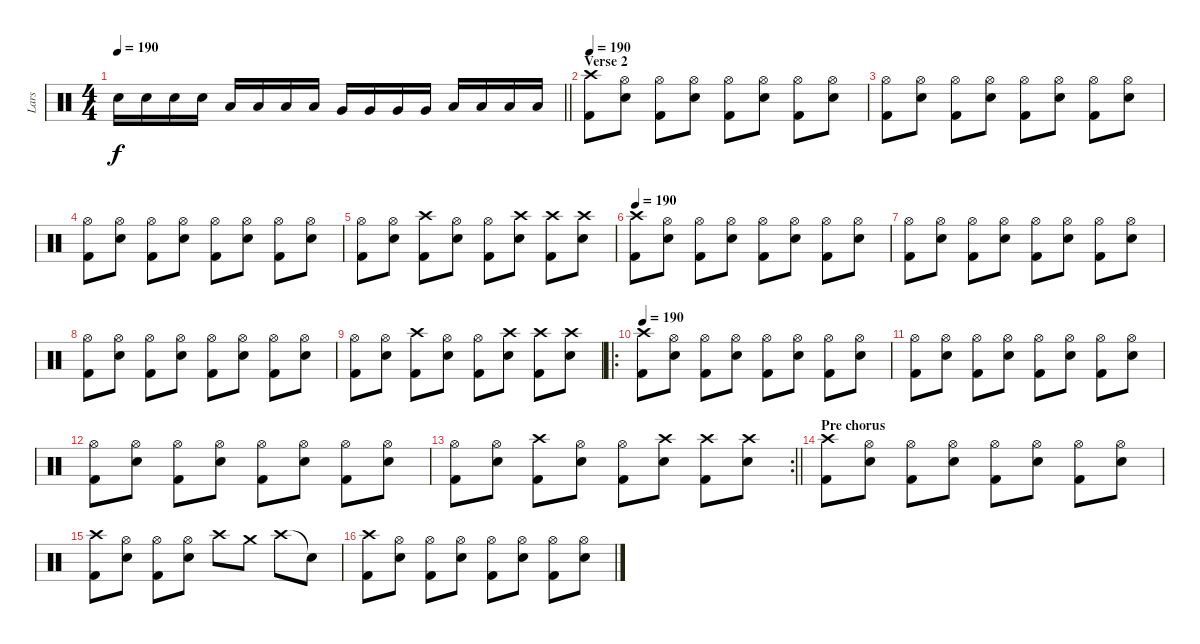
\track ("Lars" "Lars") {instrument percussion}
\staff {score}
\articulation defaults
\ts (4 4)
\tempo 190
\clef neutral
\barLineRight lightlight
\ks c "Snare (hit) 2".16{dy f} "Snare (hit) 2".16 "Snare (hit) 2".16 "Snare (hit) 2".16 "Low Tom (hit)".16 "Low Tom (hit)".16 "Low Tom (hit)".16 "Low Tom (hit)".16 "Very Low Tom (hit)".16 "Very Low Tom (hit)".16 "Very Low Tom (hit)".16 "Very Low Tom (hit)".16 "Low Floor Tom (hit)".16 "Low Floor Tom (hit)".16 "Low Floor Tom (hit)".16 "Low Floor Tom (hit)".16
|
\section ("" "Verse 2")
\tempo 190
("Crash high (hit)" "Kick (hit) 2").8 ("Hi-Hat (open)" "Snare (hit) 2").8 ("Hi-Hat (open)" "Kick (hit) 2").8 ("Hi-Hat (open)" "Snare (hit) 2").8 ("Hi-Hat (open)" "Kick (hit) 2").8 ("Hi-Hat (open)" "Snare (hit) 2").8 ("Hi-Hat (open)" "Kick (hit) 2").8 ("Hi-Hat (open)" "Snare (hit) 2").8 |
("Hi-Hat (open)" "Kick (hit) 2").8 ("Hi-Hat (open)" "Snare (hit) 2").8 ("Hi-Hat (open)" "Kick (hit) 2").8 ("Hi-Hat (open)" "Snare (hit) 2").8 ("Hi-Hat (open)" "Kick (hit) 2").8 ("Hi-Hat (open)" "Snare (hit) 2").8 ("Hi-Hat (open)" "Kick (hit) 2").8 ("Hi-Hat (open)" "Snare (hit) 2").8 |
("Hi-Hat (open)" "Kick (hit) 2").8 ("Hi-Hat (open)" "Snare (hit) 2").8 ("Hi-Hat (open)" "Kick (hit) 2").8 ("Hi-Hat (open)" "Snare (hit) 2").8 ("Hi-Hat (open)" "Kick (hit) 2").8 ("Hi-Hat (open)" "Snare (hit) 2").8 ("Hi-Hat (open)" "Kick (hit) 2").8 ("Hi-Hat (open)" "Snare (hit) 2").8 |
("Hi-Hat (open)" "Kick (hit) 2").8 ("Hi-Hat (open)" "Snare (hit) 2").8 ("Crash high (hit)" "Kick (hit) 2").8 ("Hi-Hat (open)" "Snare (hit) 2").8 ("Hi-Hat (open)" "Kick (hit) 2").8 ("Crash high (hit)" "Snare (hit) 2").8 ("Crash high (hit)" "Kick (hit) 2").8 ("Crash high (hit)" "Snare (hit) 2").8 |
\tempo 190
("Crash high (hit)" "Kick (hit) 2").8 ("Hi-Hat (open)" "Snare (hit) 2").8 ("Hi-Hat (open)" "Kick (hit) 2").8 ("Hi-Hat (open)" "Snare (hit) 2").8 ("Hi-Hat (open)" "Kick (hit) 2").8 ("Hi-Hat (open)" "Snare (hit) 2").8 ("Hi-Hat (open)" "Kick (hit) 2").8 ("Hi-Hat (open)" "Snare (hit) 2").8 |
("Hi-Hat (open)" "Kick (hit) 2").8 ("Hi-Hat (open)" "Snare (hit) 2").8 ("Hi-Hat (open)" "Kick (hit) 2").8 ("Hi-Hat (open)" "Snare (hit) 2").8 ("Hi-Hat (open)" "Kick (hit) 2").8 ("Hi-Hat (open)" "Snare (hit) 2").8 ("Hi-Hat (open)" "Kick (hit) 2").8 ("Hi-Hat (open)" "Snare (hit) 2").8 |
("Hi-Hat (open)" "Kick (hit) 2").8 ("Hi-Hat (open)" "Snare (hit) 2").8 ("Hi-Hat (open)" "Kick (hit) 2").8 ("Hi-Hat (open)" "Snare (hit) 2").8 ("Hi-Hat (open)" "Kick (hit) 2").8 ("Hi-Hat (open)" "Snare (hit) 2").8 ("Hi-Hat (open)" "Kick (hit) 2").8 ("Hi-Hat (open)" "Snare (hit) 2").8 |
("Hi-Hat (open)" "Kick (hit) 2").8 ("Hi-Hat (open)" "Snare (hit) 2").8 ("Crash high (hit)" "Kick (hit) 2").8 ("Hi-Hat (open)" "Snare (hit) 2").8 ("Hi-Hat (open)" "Kick (hit) 2").8 ("Crash high (hit)" "Snare (hit) 2").8 ("Crash high (hit)" "Kick (hit) 2").8 ("Crash high (hit)" "Snare (hit) 2").8 |
\ro
\tempo 190
("Crash high (hit)" "Kick (hit) 2").8 ("Hi-Hat (open)" "Snare (hit) 2").8 ("Hi-Hat (open)" "Kick (hit) 2").8 ("Hi-Hat (open)" "Snare (hit) 2").8 ("Hi-Hat (open)" "Kick (hit) 2").8 ("Hi-Hat (open)" "Snare (hit) 2").8 ("Hi-Hat (open)" "Kick (hit) 2").8 ("Hi-Hat (open)" "Snare (hit) 2").8 |
("Hi-Hat (open)" "Kick (hit) 2").8 ("Hi-Hat (open)" "Snare (hit) 2").8 ("Hi-Hat (open)" "Kick (hit) 2").8 ("Hi-Hat (open)" "Snare (hit) 2").8 ("Hi-Hat (open)" "Kick (hit) 2").8 ("Hi-Hat (open)" "Snare (hit) 2").8 ("Hi-Hat (open)" "Kick (hit) 2").8 ("Hi-Hat (open)" "Snare (hit) 2").8 |
("Hi-Hat (open)" "Kick (hit) 2").8 ("Hi-Hat (open)" "Snare (hit) 2").8 ("Hi-Hat (open)" "Kick (hit) 2").8 ("Hi-Hat (open)" "Snare (hit) 2").8 ("Hi-Hat (open)" "Kick (hit) 2").8 ("Hi-Hat (open)" "Snare (hit) 2").8 ("Hi-Hat (open)" "Kick (hit) 2").8 ("Hi-Hat (open)" "Snare (hit) 2").8 |
\rc 2
\barLineRight lightlight
("Hi-Hat (open)" "Kick (hit) 2").8 ("Hi-Hat (open)" "Snare (hit) 2").8 ("Crash high (hit)" "Kick (hit) 2").8 ("Hi-Hat (open)" "Snare (hit) 2").8 ("Hi-Hat (open)" "Kick (hit) 2").8 ("Crash high (hit)" "Snare (hit) 2").8 ("Crash high (hit)" "Kick (hit) 2").8 ("Crash high (hit)" "Snare (hit) 2").8 |
\section ("" "Pre chorus")
("Crash high (hit)" "Kick (hit) 2").8 ("Hi-Hat (open)" "Snare (hit) 2").8 ("Hi-Hat (open)" "Kick (hit) 2").8 ("Hi-Hat (open)" "Snare (hit) 2").8 ("Hi-Hat (open)" "Kick (hit) 2").8 ("Hi-Hat (open)" "Snare (hit) 2").8 ("Hi-Hat (open)" "Kick (hit) 2").8 ("Hi-Hat (open)" "Snare (hit) 2").8 |
("Crash high (hit)" "Kick (hit) 2").8 ("Hi-Hat (open)" "Snare (hit) 2").8 ("Hi-Hat (open)" "Kick (hit) 2").8 ("Hi-Hat (open)" "Snare (hit) 2").8 "Crash high (hit)".8 "Crash medium (hit)".8 "Crash high (hit)".8 "Snare (hit)"{t}.8 |
("Crash high (hit)" "Kick (hit) 2").8 ("Hi-Hat (open)" "Snare (hit) 2").8 ("Hi-Hat (open)" "Kick (hit) 2").8 ("Hi-Hat (open)" "Snare (hit) 2").8 ("Hi-Hat (open)" "Kick (hit) 2").8 ("Hi-Hat (open)" "Snare (hit) 2").8 ("Hi-Hat (open)" "Kick (hit) 2").8 ("Hi-Hat (open)" "Snare (hit) 2").8
